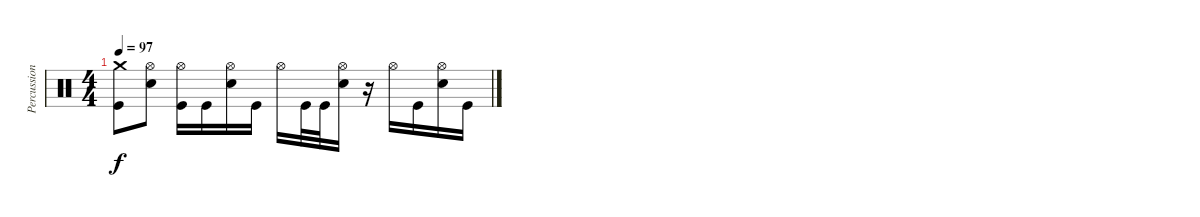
\track ("Percussion" "Percussion") {instrument percussion}
\staff {score}
\articulation defaults
\ts (4 4)
\tempo 97
\clef neutral
\ks c
("Crash medium (hit)" "Kick (hit)").8{dy f} ("Hi-Hat (open)" "Electric Snare (hit)").8 ("Hi-Hat (open)" "Kick (hit)").16 "Kick (hit)".16 ("Hi-Hat (open)" "Electric Snare (hit)").16 "Kick (hit)".16 "Hi-Hat (open)".16 "Kick (hit)".32 "Kick (hit)".32 ("Hi-Hat (open)" "Electric Snare (hit)").16 r.16 "Hi-Hat (open)".16 "Kick (hit)".16 ("Hi-Hat (open)" "Electric Snare (hit)").16 "Kick (hit)".16
